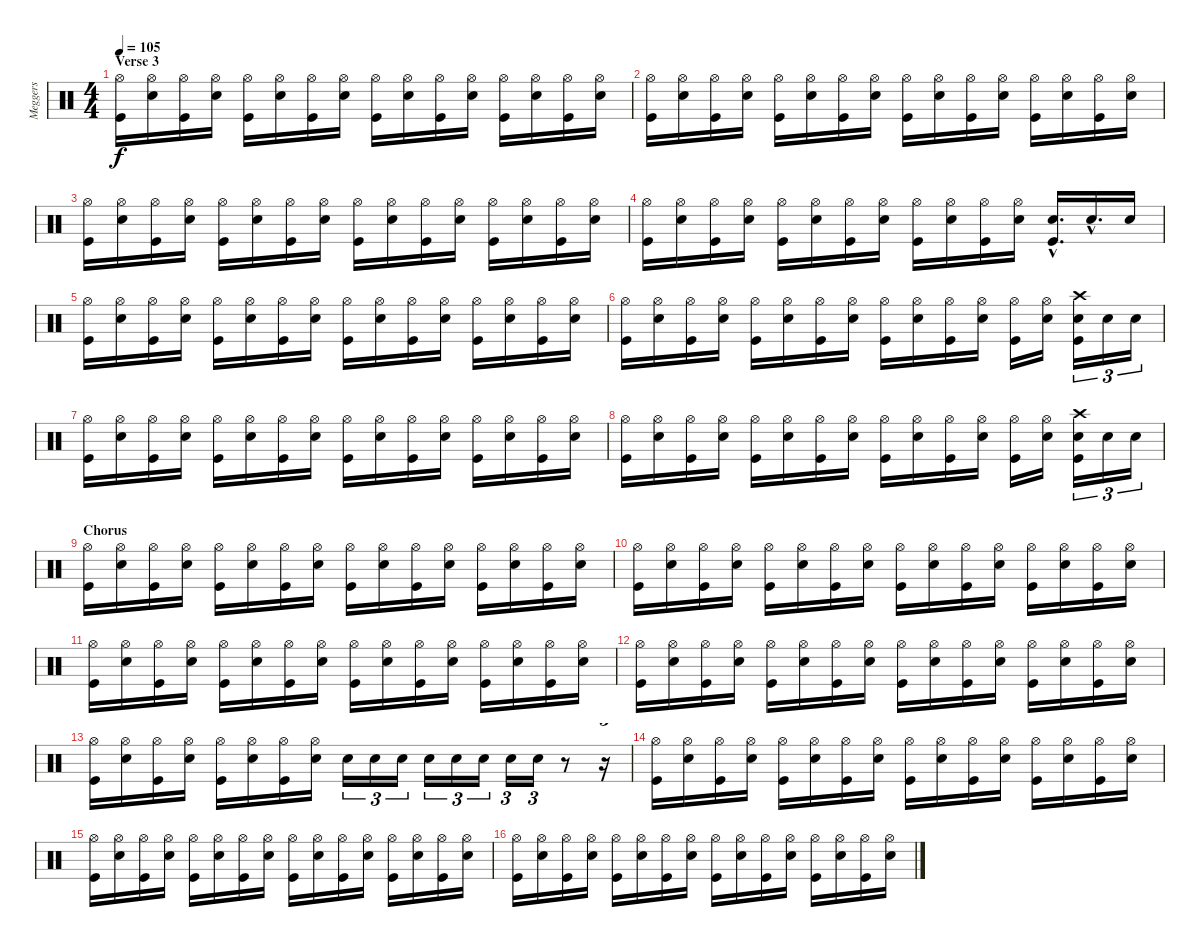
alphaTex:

\track ("Meggers" "Meggers") {instrument percussion}
\staff {score}
\articulation defaults
\ts (4 4)
\section ("" "Verse 3")
\tempo 105
\clef neutral
\ks c
("Hi-Hat (open)" "Kick (hit)").16{dy f} ("Hi-Hat (open)" "Snare (hit) 2").16 ("Hi-Hat (open)" "Kick (hit)").16 ("Hi-Hat (open)" "Snare (hit) 2").16 ("Hi-Hat (open)" "Kick (hit)").16 ("Hi-Hat (open)" "Snare (hit) 2").16 ("Hi-Hat (open)" "Kick (hit)").16 ("Hi-Hat (open)" "Snare (hit) 2").16 ("Hi-Hat (open)" "Kick (hit)").16 ("Hi-Hat (open)" "Snare (hit) 2").16 ("Hi-Hat (open)" "Kick (hit)").16 ("Hi-Hat (open)" "Snare (hit) 2").16 ("Hi-Hat (open)" "Kick (hit)").16 ("Hi-Hat (open)" "Snare (hit) 2").16 ("Hi-Hat (open)" "Kick (hit)").16 ("Hi-Hat (open)" "Snare (hit) 2").16 |
("Hi-Hat (open)" "Kick (hit)").16 ("Hi-Hat (open)" "Snare (hit) 2").16 ("Hi-Hat (open)" "Kick (hit)").16 ("Hi-Hat (open)" "Snare (hit) 2").16 ("Hi-Hat (open)" "Kick (hit)").16 ("Hi-Hat (open)" "Snare (hit) 2").16 ("Hi-Hat (open)" "Kick (hit)").16 ("Hi-Hat (open)" "Snare (hit) 2").16 ("Hi-Hat (open)" "Kick (hit)").16 ("Hi-Hat (open)" "Snare (hit) 2").16 ("Hi-Hat (open)" "Kick (hit)").16 ("Hi-Hat (open)" "Snare (hit) 2").16 ("Hi-Hat (open)" "Kick (hit)").16 ("Hi-Hat (open)" "Snare (hit) 2").16 ("Hi-Hat (open)" "Kick (hit)").16 ("Hi-Hat (open)" "Snare (hit) 2").16 |
("Hi-Hat (open)" "Kick (hit)").16 ("Hi-Hat (open)" "Snare (hit) 2").16 ("Hi-Hat (open)" "Kick (hit)").16 ("Hi-Hat (open)" "Snare (hit) 2").16 ("Hi-Hat (open)" "Kick (hit)").16 ("Hi-Hat (open)" "Snare (hit) 2").16 ("Hi-Hat (open)" "Kick (hit)").16 ("Hi-Hat (open)" "Snare (hit) 2").16 ("Hi-Hat (open)" "Kick (hit)").16 ("Hi-Hat (open)" "Snare (hit) 2").16 ("Hi-Hat (open)" "Kick (hit)").16 ("Hi-Hat (open)" "Snare (hit) 2").16 ("Hi-Hat (open)" "Kick (hit)").16 ("Hi-Hat (open)" "Snare (hit) 2").16 ("Hi-Hat (open)" "Kick (hit)").16 ("Hi-Hat (open)" "Snare (hit) 2").16 |
("Hi-Hat (open)" "Kick (hit)").16 ("Hi-Hat (open)" "Snare (hit) 2").16 ("Hi-Hat (open)" "Kick (hit)").16 ("Hi-Hat (open)" "Snare (hit) 2").16 ("Hi-Hat (open)" "Kick (hit)").16 ("Hi-Hat (open)" "Snare (hit) 2").16 ("Hi-Hat (open)" "Kick (hit)").16 ("Hi-Hat (open)" "Snare (hit) 2").16 ("Hi-Hat (open)" "Kick (hit)").16 ("Hi-Hat (open)" "Snare (hit) 2").16 ("Hi-Hat (open)" "Kick (hit)").16 ("Hi-Hat (open)" "Snare (hit) 2").16 ("Snare (hit) 2"{hac} "Kick (hit)"{hac}).16{d} "Snare (hit) 2"{hac}.16{d} "Snare (hit) 2".16 |
("Hi-Hat (open)" "Kick (hit)").16 ("Hi-Hat (open)" "Snare (hit) 2").16 ("Hi-Hat (open)" "Kick (hit)").16 ("Hi-Hat (open)" "Snare (hit) 2").16 ("Hi-Hat (open)" "Kick (hit)").16 ("Hi-Hat (open)" "Snare (hit) 2").16 ("Hi-Hat (open)" "Kick (hit)").16 ("Hi-Hat (open)" "Snare (hit) 2").16 ("Hi-Hat (open)" "Kick (hit)").16 ("Hi-Hat (open)" "Snare (hit) 2").16 ("Hi-Hat (open)" "Kick (hit)").16 ("Hi-Hat (open)" "Snare (hit) 2").16 ("Hi-Hat (open)" "Kick (hit)").16 ("Hi-Hat (open)" "Snare (hit) 2").16 ("Hi-Hat (open)" "Kick (hit)").16 ("Hi-Hat (open)" "Snare (hit) 2").16 |
("Hi-Hat (open)" "Kick (hit)").16 ("Hi-Hat (open)" "Snare (hit) 2").16 ("Hi-Hat (open)" "Kick (hit)").16 ("Hi-Hat (open)" "Snare (hit) 2").16 ("Hi-Hat (open)" "Kick (hit)").16 ("Hi-Hat (open)" "Snare (hit) 2").16 ("Hi-Hat (open)" "Kick (hit)").16 ("Hi-Hat (open)" "Snare (hit) 2").16 ("Hi-Hat (open)" "Kick (hit)").16 ("Hi-Hat (open)" "Snare (hit) 2").16 ("Hi-Hat (open)" "Kick (hit)").16 ("Hi-Hat (open)" "Snare (hit) 2").16 ("Hi-Hat (open)" "Kick (hit)").16 ("Hi-Hat (open)" "Snare (hit) 2").16 ("Crash high (hit)" "Snare (hit) 2" "Kick (hit)").16{tu (3 2)} "Snare (hit) 2".16{tu (3 2)} "Snare (hit) 2".16{tu (3 2)} |
("Hi-Hat (open)" "Kick (hit)").16 ("Hi-Hat (open)" "Snare (hit) 2").16 ("Hi-Hat (open)" "Kick (hit)").16 ("Hi-Hat (open)" "Snare (hit) 2").16 ("Hi-Hat (open)" "Kick (hit)").16 ("Hi-Hat (open)" "Snare (hit) 2").16 ("Hi-Hat (open)" "Kick (hit)").16 ("Hi-Hat (open)" "Snare (hit) 2").16 ("Hi-Hat (open)" "Kick (hit)").16 ("Hi-Hat (open)" "Snare (hit) 2").16 ("Hi-Hat (open)" "Kick (hit)").16 ("Hi-Hat (open)" "Snare (hit) 2").16 ("Hi-Hat (open)" "Kick (hit)").16 ("Hi-Hat (open)" "Snare (hit) 2").16 ("Hi-Hat (open)" "Kick (hit)").16 ("Hi-Hat (open)" "Snare (hit) 2").16 |
("Hi-Hat (open)" "Kick (hit)").16 ("Hi-Hat (open)" "Snare (hit) 2").16 ("Hi-Hat (open)" "Kick (hit)").16 ("Hi-Hat (open)" "Snare (hit) 2").16 ("Hi-Hat (open)" "Kick (hit)").16 ("Hi-Hat (open)" "Snare (hit) 2").16 ("Hi-Hat (open)" "Kick (hit)").16 ("Hi-Hat (open)" "Snare (hit) 2").16 ("Hi-Hat (open)" "Kick (hit)").16 ("Hi-Hat (open)" "Snare (hit) 2").16 ("Hi-Hat (open)" "Kick (hit)").16 ("Hi-Hat (open)" "Snare (hit) 2").16 ("Hi-Hat (open)" "Kick (hit)").16 ("Hi-Hat (open)" "Snare (hit) 2").16 ("Crash high (hit)" "Snare (hit) 2" "Kick (hit)").16{tu (3 2)} "Snare (hit) 2".16{tu (3 2)} "Snare (hit) 2".16{tu (3 2)} |
\section ("" "Chorus")
("Hi-Hat (open)" "Kick (hit)").16 ("Hi-Hat (open)" "Snare (hit) 2").16 ("Hi-Hat (open)" "Kick (hit)").16 ("Hi-Hat (open)" "Snare (hit) 2").16 ("Hi-Hat (open)" "Kick (hit)").16 ("Hi-Hat (open)" "Snare (hit) 2").16 ("Hi-Hat (open)" "Kick (hit)").16 ("Hi-Hat (open)" "Snare (hit) 2").16 ("Hi-Hat (open)" "Kick (hit)").16 ("Hi-Hat (open)" "Snare (hit) 2").16 ("Hi-Hat (open)" "Kick (hit)").16 ("Hi-Hat (open)" "Snare (hit) 2").16 ("Hi-Hat (open)" "Kick (hit)").16 ("Hi-Hat (open)" "Snare (hit) 2").16 ("Hi-Hat (open)" "Kick (hit)").16 ("Hi-Hat (open)" "Snare (hit) 2").16 |
("Hi-Hat (open)" "Kick (hit)").16 ("Hi-Hat (open)" "Snare (hit) 2").16 ("Hi-Hat (open)" "Kick (hit)").16 ("Hi-Hat (open)" "Snare (hit) 2").16 ("Hi-Hat (open)" "Kick (hit)").16 ("Hi-Hat (open)" "Snare (hit) 2").16 ("Hi-Hat (open)" "Kick (hit)").16 ("Hi-Hat (open)" "Snare (hit) 2").16 ("Hi-Hat (open)" "Kick (hit)").16 ("Hi-Hat (open)" "Snare (hit) 2").16 ("Hi-Hat (open)" "Kick (hit)").16 ("Hi-Hat (open)" "Snare (hit) 2").16 ("Hi-Hat (open)" "Kick (hit)").16 ("Hi-Hat (open)" "Snare (hit) 2").16 ("Hi-Hat (open)" "Kick (hit)").16 ("Hi-Hat (open)" "Snare (hit) 2").16 |
("Hi-Hat (open)" "Kick (hit)").16 ("Hi-Hat (open)" "Snare (hit) 2").16 ("Hi-Hat (open)" "Kick (hit)").16 ("Hi-Hat (open)" "Snare (hit) 2").16 ("Hi-Hat (open)" "Kick (hit)").16 ("Hi-Hat (open)" "Snare (hit) 2").16 ("Hi-Hat (open)" "Kick (hit)").16 ("Hi-Hat (open)" "Snare (hit) 2").16 ("Hi-Hat (open)" "Kick (hit)").16 ("Hi-Hat (open)" "Snare (hit) 2").16 ("Hi-Hat (open)" "Kick (hit)").16 ("Hi-Hat (open)" "Snare (hit) 2").16 ("Hi-Hat (open)" "Kick (hit)").16 ("Hi-Hat (open)" "Snare (hit) 2").16 ("Hi-Hat (open)" "Kick (hit)").16 ("Hi-Hat (open)" "Snare (hit) 2").16 |
("Hi-Hat (open)" "Kick (hit)").16 ("Hi-Hat (open)" "Snare (hit) 2").16 ("Hi-Hat (open)" "Kick (hit)").16 ("Hi-Hat (open)" "Snare (hit) 2").16 ("Hi-Hat (open)" "Kick (hit)").16 ("Hi-Hat (open)" "Snare (hit) 2").16 ("Hi-Hat (open)" "Kick (hit)").16 ("Hi-Hat (open)" "Snare (hit) 2").16 ("Hi-Hat (open)" "Kick (hit)").16 ("Hi-Hat (open)" "Snare (hit) 2").16 ("Hi-Hat (open)" "Kick (hit)").16 ("Hi-Hat (open)" "Snare (hit) 2").16 ("Hi-Hat (open)" "Kick (hit)").16 ("Hi-Hat (open)" "Snare (hit) 2").16 ("Hi-Hat (open)" "Kick (hit)").16 ("Hi-Hat (open)" "Snare (hit) 2").16 |
("Hi-Hat (open)" "Kick (hit)").16 ("Hi-Hat (open)" "Snare (hit) 2").16 ("Hi-Hat (open)" "Kick (hit)").16 ("Hi-Hat (open)" "Snare (hit) 2").16 ("Hi-Hat (open)" "Kick (hit)").16 ("Hi-Hat (open)" "Snare (hit) 2").16 ("Hi-Hat (open)" "Kick (hit)").16 ("Hi-Hat (open)" "Snare (hit) 2").16 "Snare (hit) 2".16{tu (3 2)} "Snare (hit) 2".16{tu (3 2)} "Snare (hit) 2".16{tu (3 2)} "Snare (hit) 2".16{tu (3 2)} "Snare (hit) 2".16{tu (3 2)} "Snare (hit) 2".16{tu (3 2)} "Snare (hit) 2".16{tu (3 2)} "Snare (hit) 2".16{tu (3 2)} r.8 r.16{tu (3 2)} |
("Hi-Hat (open)" "Kick (hit)").16 ("Hi-Hat (open)" "Snare (hit) 2").16 ("Hi-Hat (open)" "Kick (hit)").16 ("Hi-Hat (open)" "Snare (hit) 2").16 ("Hi-Hat (open)" "Kick (hit)").16 ("Hi-Hat (open)" "Snare (hit) 2").16 ("Hi-Hat (open)" "Kick (hit)").16 ("Hi-Hat (open)" "Snare (hit) 2").16 ("Hi-Hat (open)" "Kick (hit)").16 ("Hi-Hat (open)" "Snare (hit) 2").16 ("Hi-Hat (open)" "Kick (hit)").16 ("Hi-Hat (open)" "Snare (hit) 2").16 ("Hi-Hat (open)" "Kick (hit)").16 ("Hi-Hat (open)" "Snare (hit) 2").16 ("Hi-Hat (open)" "Kick (hit)").16 ("Hi-Hat (open)" "Snare (hit) 2").16 |
("Hi-Hat (open)" "Kick (hit)").16 ("Hi-Hat (open)" "Snare (hit) 2").16 ("Hi-Hat (open)" "Kick (hit)").16 ("Hi-Hat (open)" "Snare (hit) 2").16 ("Hi-Hat (open)" "Kick (hit)").16 ("Hi-Hat (open)" "Snare (hit) 2").16 ("Hi-Hat (open)" "Kick (hit)").16 ("Hi-Hat (open)" "Snare (hit) 2").16 ("Hi-Hat (open)" "Kick (hit)").16 ("Hi-Hat (open)" "Snare (hit) 2").16 ("Hi-Hat (open)" "Kick (hit)").16 ("Hi-Hat (open)" "Snare (hit) 2").16 ("Hi-Hat (open)" "Kick (hit)").16 ("Hi-Hat (open)" "Snare (hit) 2").16 ("Hi-Hat (open)" "Kick (hit)").16 ("Hi-Hat (open)" "Snare (hit) 2").16 |
("Hi-Hat (open)" "Kick (hit)").16 ("Hi-Hat (open)" "Snare (hit) 2").16 ("Hi-Hat (open)" "Kick (hit)").16 ("Hi-Hat (open)" "Snare (hit) 2").16 ("Hi-Hat (open)" "Kick (hit)").16 ("Hi-Hat (open)" "Snare (hit) 2").16 ("Hi-Hat (open)" "Kick (hit)").16 ("Hi-Hat (open)" "Snare (hit) 2").16 ("Hi-Hat (open)" "Kick (hit)").16 ("Hi-Hat (open)" "Snare (hit) 2").16 ("Hi-Hat (open)" "Kick (hit)").16 ("Hi-Hat (open)" "Snare (hit) 2").16 ("Hi-Hat (open)" "Kick (hit)").16 ("Hi-Hat (open)" "Snare (hit) 2").16 ("Hi-Hat (open)" "Kick (hit)").16 ("Hi-Hat (open)" "Snare (hit) 2").16
